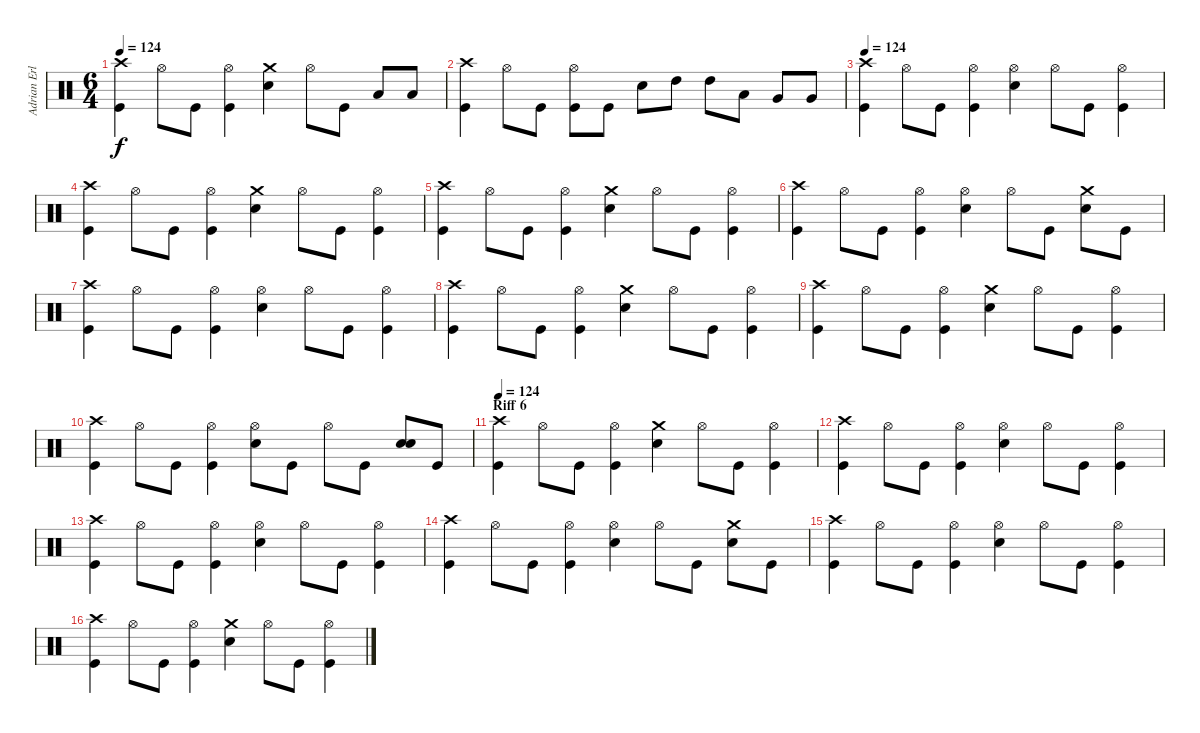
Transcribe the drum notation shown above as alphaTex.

\track ("Adrian Erlandsson (Norseman of the Apoca" "Adrian Erl") {instrument percussion}
\staff {score}
\articulation defaults
\ts (6 4)
\tempo 124
\clef neutral
\ks c
("Crash high (hit)" "Kick (hit)").4{dy f} "Hi-Hat (open)".8 "Kick (hit)".8 ("Hi-Hat (open)" "Kick (hit)").4 ("Crash medium (hit)" "Electric Snare (hit)").4 "Hi-Hat (open)".8 "Kick (hit)".8 "Low Tom (hit)".8 "Low Tom (hit)".8 |
("Crash high (hit)" "Kick (hit)").4 "Hi-Hat (open)".8 "Kick (hit)".8 ("Hi-Hat (open)" "Kick (hit)").8 "Kick (hit)".8 "Electric Snare (hit)".8 "High Tom (hit)".8 "High Tom (hit)".8 "Low Tom (hit)".8 "Very Low Tom (hit)".8 "Very Low Tom (hit)".8 |
\tempo 124
("Crash high (hit)" "Kick (hit)").4 "Hi-Hat (open)".8 "Kick (hit)".8 ("Hi-Hat (open)" "Kick (hit)").4 ("Hi-Hat (open)" "Electric Snare (hit)").4 "Hi-Hat (open)".8 "Kick (hit)".8 ("Hi-Hat (open)" "Kick (hit)").4 |
("Crash high (hit)" "Kick (hit)").4 "Hi-Hat (open)".8 "Kick (hit)".8 ("Hi-Hat (open)" "Kick (hit)").4 ("Crash medium (hit)" "Electric Snare (hit)").4 "Hi-Hat (open)".8 "Kick (hit)".8 ("Hi-Hat (open)" "Kick (hit)").4 |
("Crash high (hit)" "Kick (hit)").4 "Hi-Hat (open)".8 "Kick (hit)".8 ("Hi-Hat (open)" "Kick (hit)").4 ("Crash medium (hit)" "Electric Snare (hit)").4 "Hi-Hat (open)".8 "Kick (hit)".8 ("Hi-Hat (open)" "Kick (hit)").4 |
("Crash high (hit)" "Kick (hit)").4 "Hi-Hat (open)".8 "Kick (hit)".8 ("Hi-Hat (open)" "Kick (hit)").4 ("Hi-Hat (open)" "Electric Snare (hit)").4 "Hi-Hat (open)".8 "Kick (hit)".8 ("Crash medium (hit)" "Electric Snare (hit)").8 "Kick (hit)".8 |
("Crash high (hit)" "Kick (hit)").4 "Hi-Hat (open)".8 "Kick (hit)".8 ("Hi-Hat (open)" "Kick (hit)").4 ("Hi-Hat (open)" "Electric Snare (hit)").4 "Hi-Hat (open)".8 "Kick (hit)".8 ("Hi-Hat (open)" "Kick (hit)").4 |
("Crash high (hit)" "Kick (hit)").4 "Hi-Hat (open)".8 "Kick (hit)".8 ("Hi-Hat (open)" "Kick (hit)").4 ("Crash medium (hit)" "Electric Snare (hit)").4 "Hi-Hat (open)".8 "Kick (hit)".8 ("Hi-Hat (open)" "Kick (hit)").4 |
("Crash high (hit)" "Kick (hit)").4 "Hi-Hat (open)".8 "Kick (hit)".8 ("Hi-Hat (open)" "Kick (hit)").4 ("Crash medium (hit)" "Electric Snare (hit)").4 "Hi-Hat (open)".8 "Kick (hit)".8 ("Hi-Hat (open)" "Kick (hit)").4 |
("Crash high (hit)" "Kick (hit)").4 "Hi-Hat (open)".8 "Kick (hit)".8 ("Hi-Hat (open)" "Kick (hit)").4 ("Hi-Hat (open)" "Electric Snare (hit)").8 "Kick (hit)".8 "Hi-Hat (open)".8 "Kick (hit)".8 ("Electric Snare (hit)" "Electric Snare (hit)").8{bu 120} "Kick (hit)".8 |
\section ("" "Riff 6")
\tempo 124
("Crash high (hit)" "Kick (hit)").4 "Hi-Hat (open)".8 "Kick (hit)".8 ("Hi-Hat (open)" "Kick (hit)").4 ("Crash medium (hit)" "Electric Snare (hit)").4 "Hi-Hat (open)".8 "Kick (hit)".8 ("Hi-Hat (open)" "Kick (hit)").4 |
("Crash high (hit)" "Kick (hit)").4 "Hi-Hat (open)".8 "Kick (hit)".8 ("Hi-Hat (open)" "Kick (hit)").4 ("Hi-Hat (open)" "Electric Snare (hit)").4 "Hi-Hat (open)".8 "Kick (hit)".8 ("Hi-Hat (open)" "Kick (hit)").4 |
("Crash high (hit)" "Kick (hit)").4 "Hi-Hat (open)".8 "Kick (hit)".8 ("Hi-Hat (open)" "Kick (hit)").4 ("Hi-Hat (open)" "Electric Snare (hit)").4 "Hi-Hat (open)".8 "Kick (hit)".8 ("Hi-Hat (open)" "Kick (hit)").4 |
("Crash high (hit)" "Kick (hit)").4 "Hi-Hat (open)".8 "Kick (hit)".8 ("Hi-Hat (open)" "Kick (hit)").4 ("Hi-Hat (open)" "Electric Snare (hit)").4 "Hi-Hat (open)".8 "Kick (hit)".8 ("Crash medium (hit)" "Electric Snare (hit)").8 "Kick (hit)".8 |
("Crash high (hit)" "Kick (hit)").4 "Hi-Hat (open)".8 "Kick (hit)".8 ("Hi-Hat (open)" "Kick (hit)").4 ("Hi-Hat (open)" "Electric Snare (hit)").4 "Hi-Hat (open)".8 "Kick (hit)".8 ("Hi-Hat (open)" "Kick (hit)").4 |
("Crash high (hit)" "Kick (hit)").4 "Hi-Hat (open)".8 "Kick (hit)".8 ("Hi-Hat (open)" "Kick (hit)").4 ("Crash medium (hit)" "Electric Snare (hit)").4 "Hi-Hat (open)".8 "Kick (hit)".8 ("Hi-Hat (open)" "Kick (hit)").4
